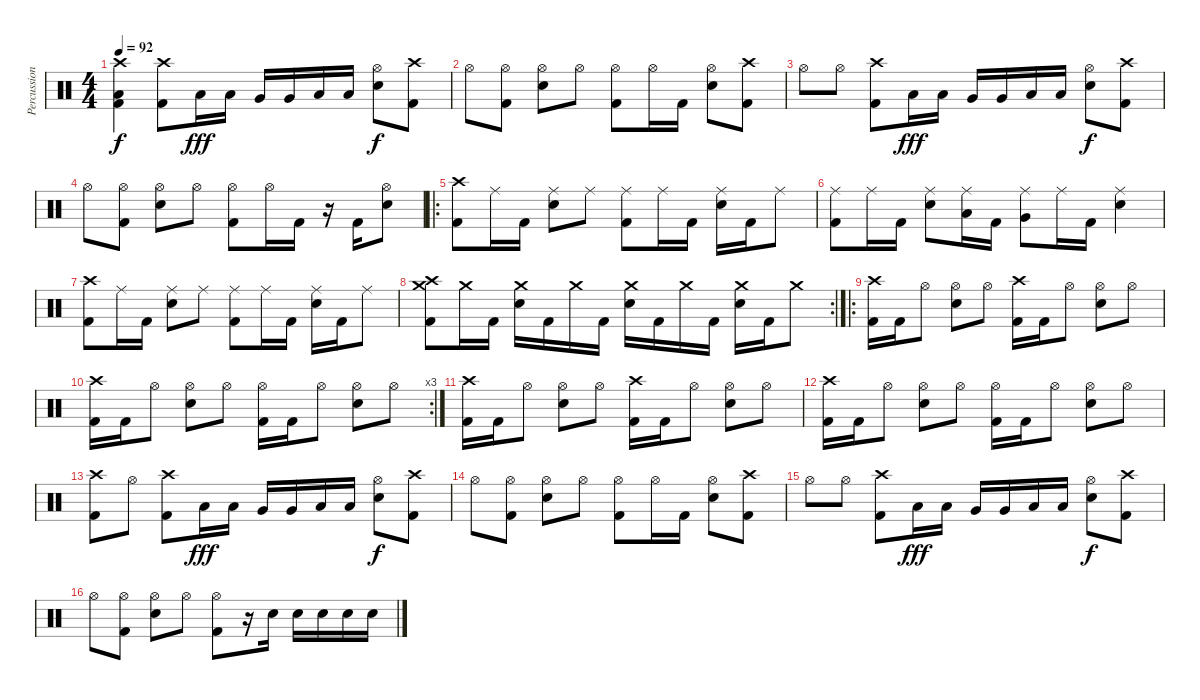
\track ("Percussions" "Percussion") {instrument percussion}
\staff {score}
\articulation defaults
\ts (4 4)
\tempo 92
\clef neutral
\ks c
("Crash high (hit)" "Low Tom (hit)" "Kick (hit) 2").4{dy f} ("Crash high (hit)" "Kick (hit) 2").8 "Low Tom (hit)".16{dy fff} "Low Tom (hit)".16 "Very Low Tom (hit)".16 "Very Low Tom (hit)".16 "Low Floor Tom (hit)".16 "Low Floor Tom (hit)".16 ("Hi-Hat (open)" "Electric Snare (hit)").8{dy f} ("Crash high (hit)" "Kick (hit) 2").8 |
"Hi-Hat (open)".8 ("Hi-Hat (open)" "Kick (hit) 2").8 ("Hi-Hat (open)" "Electric Snare (hit)").8 "Hi-Hat (open)".8 ("Hi-Hat (open)" "Kick (hit) 2").8 "Hi-Hat (open)".16 "Kick (hit) 2".16 ("Hi-Hat (open)" "Electric Snare (hit)").8 ("Crash high (hit)" "Kick (hit) 2").8 |
"Hi-Hat (open)".8 "Hi-Hat (open)".8 ("Crash high (hit)" "Kick (hit) 2").8 "Low Tom (hit)".16{dy fff} "Low Tom (hit)".16 "Very Low Tom (hit)".16 "Very Low Tom (hit)".16 "Low Floor Tom (hit)".16 "Low Floor Tom (hit)".16 ("Hi-Hat (open)" "Electric Snare (hit)").8{dy f} ("Crash high (hit)" "Kick (hit) 2").8 |
"Hi-Hat (open)".8 ("Hi-Hat (open)" "Kick (hit) 2").8 ("Hi-Hat (open)" "Electric Snare (hit)").8 "Hi-Hat (open)".8 ("Hi-Hat (open)" "Kick (hit) 2").8 "Hi-Hat (open)".16 "Kick (hit) 2".16 r.16 "Kick (hit) 2".16 ("Hi-Hat (open)" "Electric Snare (hit)").8 |
\ro
("Crash high (hit)" "Kick (hit) 2").8 "Ride (middle)".16 "Kick (hit) 2".16 ("Ride (middle)" "Electric Snare (hit)").8 "Ride (middle)".8 ("Ride (middle)" "Kick (hit) 2").8 "Ride (middle)".16 "Kick (hit) 2".16 ("Ride (middle)" "Electric Snare (hit)").16 "Kick (hit) 2".16 "Ride (middle)".8 |
("Ride (middle)" "Kick (hit) 2").8 "Ride (middle)".16 "Kick (hit) 2".16 ("Ride (middle)" "Electric Snare (hit)").8 ("Ride (middle)" "Low Tom (hit)").16 "Kick (hit) 2".16 ("Ride (middle)" "Very Low Tom (hit)").8 "Ride (middle)".16 "Kick (hit) 2".16 ("Ride (middle)" "Electric Snare (hit)").4 |
("Crash high (hit)" "Kick (hit) 2").8 "Ride (middle)".16 "Kick (hit) 2".16 ("Ride (middle)" "Electric Snare (hit)").8 "Ride (middle)".8 ("Ride (middle)" "Kick (hit) 2").8 "Ride (middle)".16 "Kick (hit) 2".16 ("Ride (middle)" "Electric Snare (hit)").16 "Kick (hit) 2".16 "Ride (middle)".8 |
\rc 2
("Crash high (hit)" "Crash medium (hit)" "Kick (hit) 2").8 "Crash medium (hit)".16 "Kick (hit) 2".16 ("Crash medium (hit)" "Electric Snare (hit)").16 "Kick (hit) 2".16 "Crash medium (hit)".16 "Kick (hit) 2".16 ("Crash medium (hit)" "Electric Snare (hit)").16 "Kick (hit) 2".16 "Crash medium (hit)".16 "Kick (hit) 2".16 ("Crash medium (hit)" "Electric Snare (hit)").16 "Kick (hit) 2".16 "Crash medium (hit)".8 |
\ro
("Crash high (hit)" "Kick (hit) 2").16 "Kick (hit) 2".16 "Hi-Hat (open)".8 ("Hi-Hat (open)" "Electric Snare (hit)").8 "Hi-Hat (open)".8 ("Crash high (hit)" "Kick (hit) 2").16 "Kick (hit) 2".16 "Hi-Hat (open)".8 ("Hi-Hat (open)" "Electric Snare (hit)").8 "Hi-Hat (open)".8 |
\rc 3
("Crash high (hit)" "Kick (hit) 2").16 "Kick (hit) 2".16 "Hi-Hat (open)".8 ("Hi-Hat (open)" "Electric Snare (hit)").8 "Hi-Hat (open)".8 ("Hi-Hat (open)" "Kick (hit) 2").16 "Kick (hit) 2".16 "Hi-Hat (open)".8 ("Hi-Hat (open)" "Electric Snare (hit)").8 "Hi-Hat (open)".8 |
("Crash high (hit)" "Kick (hit) 2").16 "Kick (hit) 2".16 "Hi-Hat (open)".8 ("Hi-Hat (open)" "Electric Snare (hit)").8 "Hi-Hat (open)".8 ("Crash high (hit)" "Kick (hit) 2").16 "Kick (hit) 2".16 "Hi-Hat (open)".8 ("Hi-Hat (open)" "Electric Snare (hit)").8 "Hi-Hat (open)".8 |
("Crash high (hit)" "Kick (hit) 2").16 "Kick (hit) 2".16 "Hi-Hat (open)".8 ("Hi-Hat (open)" "Electric Snare (hit)").8 "Hi-Hat (open)".8 ("Hi-Hat (open)" "Kick (hit) 2").16 "Kick (hit) 2".16 "Hi-Hat (open)".8 ("Hi-Hat (open)" "Electric Snare (hit)").8 "Hi-Hat (open)".8 |
("Crash high (hit)" "Kick (hit) 2").8 "Hi-Hat (open)".8 ("Crash high (hit)" "Kick (hit) 2").8 "Low Tom (hit)".16{dy fff} "Low Tom (hit)".16 "Very Low Tom (hit)".16 "Very Low Tom (hit)".16 "Low Floor Tom (hit)".16 "Low Floor Tom (hit)".16 ("Hi-Hat (open)" "Electric Snare (hit)").8{dy f} ("Crash high (hit)" "Kick (hit) 2").8 |
"Hi-Hat (open)".8 ("Hi-Hat (open)" "Kick (hit) 2").8 ("Hi-Hat (open)" "Electric Snare (hit)").8 "Hi-Hat (open)".8 ("Hi-Hat (open)" "Kick (hit) 2").8 "Hi-Hat (open)".16 "Kick (hit) 2".16 ("Hi-Hat (open)" "Electric Snare (hit)").8 ("Crash high (hit)" "Kick (hit) 2").8 |
"Hi-Hat (open)".8 "Hi-Hat (open)".8 ("Crash high (hit)" "Kick (hit) 2").8 "Low Floor Tom (hit)".16{dy fff} "Low Floor Tom (hit)".16 "Very Low Tom (hit)".16 "Very Low Tom (hit)".16 "Low Tom (hit)".16 "Low Tom (hit)".16 ("Hi-Hat (open)" "Electric Snare (hit)").8{dy f} ("Crash high (hit)" "Kick (hit) 2").8 |
"Hi-Hat (open)".8 ("Hi-Hat (open)" "Kick (hit) 2").8 ("Hi-Hat (open)" "Electric Snare (hit)").8 "Hi-Hat (open)".8 ("Hi-Hat (open)" "Kick (hit) 2").8 r.16 "Electric Snare (hit)".16 "Electric Snare (hit)".16 "Electric Snare (hit)".16 "Electric Snare (hit)".16 "Electric Snare (hit)".16
